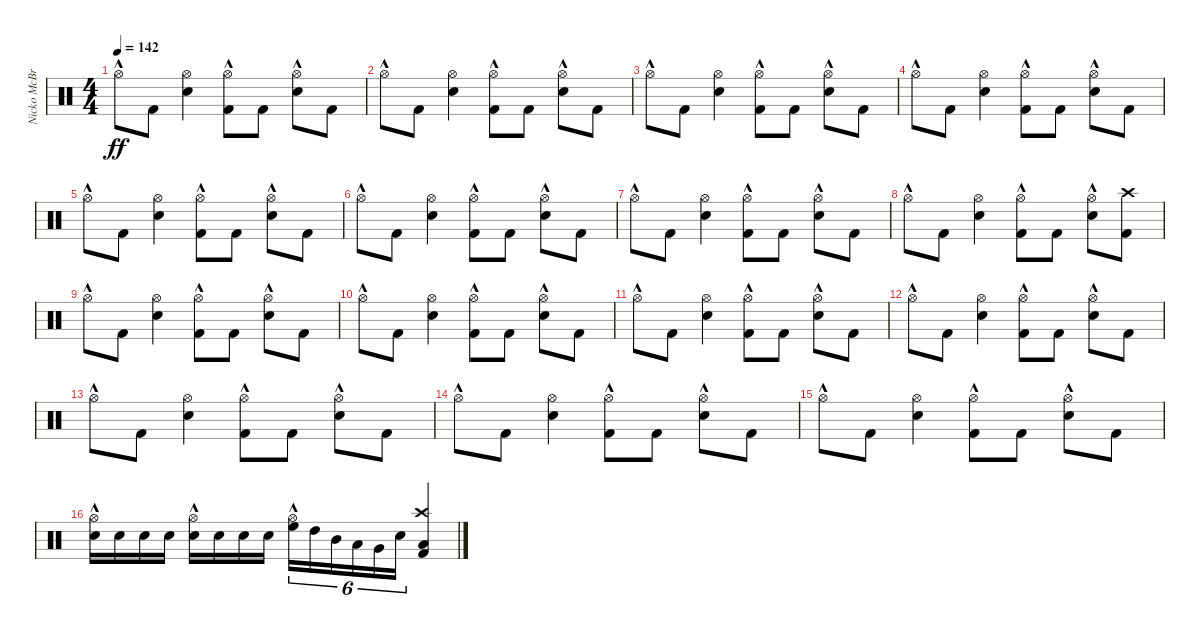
\track ("Nicko McBrain" "Nicko McBr") {instrument percussion}
\staff {score}
\articulation defaults
\ts (4 4)
\tempo 142
\clef neutral
\ks c "Hi-Hat (open)"{hac}.8{dy ff} "Kick (hit) 2".8
("Snare (hit) 2" "Hi-Hat (open)").4 ("Kick (hit) 2" "Hi-Hat (open)"{hac}).8 "Kick (hit) 2".8 ("Snare (hit) 2" "Hi-Hat (open)"{hac}).8 "Kick (hit) 2".8 |
"Hi-Hat (open)"{hac}.8 "Kick (hit) 2".8 ("Snare (hit) 2" "Hi-Hat (open)").4 ("Kick (hit) 2" "Hi-Hat (open)"{hac}).8 "Kick (hit) 2".8 ("Snare (hit) 2" "Hi-Hat (open)"{hac}).8 "Kick (hit) 2".8 |
"Hi-Hat (open)"{hac}.8 "Kick (hit) 2".8 ("Snare (hit) 2" "Hi-Hat (open)").4 ("Kick (hit) 2" "Hi-Hat (open)"{hac}).8 "Kick (hit) 2".8 ("Snare (hit) 2" "Hi-Hat (open)"{hac}).8 "Kick (hit) 2".8 |
"Hi-Hat (open)"{hac}.8 "Kick (hit) 2".8 ("Snare (hit) 2" "Hi-Hat (open)").4 ("Kick (hit) 2" "Hi-Hat (open)"{hac}).8 "Kick (hit) 2".8 ("Snare (hit) 2" "Hi-Hat (open)"{hac}).8 "Kick (hit) 2".8 |
"Hi-Hat (open)"{hac}.8 "Kick (hit) 2".8 ("Snare (hit) 2" "Hi-Hat (open)").4 ("Kick (hit) 2" "Hi-Hat (open)"{hac}).8 "Kick (hit) 2".8 ("Snare (hit) 2" "Hi-Hat (open)"{hac}).8 "Kick (hit) 2".8 |
"Hi-Hat (open)"{hac}.8 "Kick (hit) 2".8 ("Snare (hit) 2" "Hi-Hat (open)").4 ("Kick (hit) 2" "Hi-Hat (open)"{hac}).8 "Kick (hit) 2".8 ("Snare (hit) 2" "Hi-Hat (open)"{hac}).8 "Kick (hit) 2".8 |
"Hi-Hat (open)"{hac}.8 "Kick (hit) 2".8 ("Snare (hit) 2" "Hi-Hat (open)").4 ("Kick (hit) 2" "Hi-Hat (open)"{hac}).8 "Kick (hit) 2".8 ("Snare (hit) 2" "Hi-Hat (open)"{hac}).8 "Kick (hit) 2".8 |
"Hi-Hat (open)"{hac}.8 "Kick (hit) 2".8 ("Snare (hit) 2" "Hi-Hat (open)").4 ("Kick (hit) 2" "Hi-Hat (open)"{hac}).8 "Kick (hit) 2".8 ("Snare (hit) 2" "Hi-Hat (open)"{hac}).8 ("Kick (hit) 2" "Crash high (hit)").8 |
"Hi-Hat (open)"{hac}.8 "Kick (hit) 2".8 ("Snare (hit) 2" "Hi-Hat (open)").4 ("Kick (hit) 2" "Hi-Hat (open)"{hac}).8 "Kick (hit) 2".8 ("Snare (hit) 2" "Hi-Hat (open)"{hac}).8 "Kick (hit) 2".8 |
"Hi-Hat (open)"{hac}.8 "Kick (hit) 2".8 ("Snare (hit) 2" "Hi-Hat (open)").4 ("Kick (hit) 2" "Hi-Hat (open)"{hac}).8 "Kick (hit) 2".8 ("Snare (hit) 2" "Hi-Hat (open)"{hac}).8 "Kick (hit) 2".8 |
"Hi-Hat (open)"{hac}.8 "Kick (hit) 2".8 ("Snare (hit) 2" "Hi-Hat (open)").4 ("Kick (hit) 2" "Hi-Hat (open)"{hac}).8 "Kick (hit) 2".8 ("Snare (hit) 2" "Hi-Hat (open)"{hac}).8 "Kick (hit) 2".8 |
"Hi-Hat (open)"{hac}.8 "Kick (hit) 2".8 ("Snare (hit) 2" "Hi-Hat (open)").4 ("Kick (hit) 2" "Hi-Hat (open)"{hac}).8 "Kick (hit) 2".8 ("Snare (hit) 2" "Hi-Hat (open)"{hac}).8 "Kick (hit) 2".8 |
"Hi-Hat (open)"{hac}.8 "Kick (hit) 2".8 ("Snare (hit) 2" "Hi-Hat (open)").4 ("Kick (hit) 2" "Hi-Hat (open)"{hac}).8 "Kick (hit) 2".8 ("Snare (hit) 2" "Hi-Hat (open)"{hac}).8 "Kick (hit) 2".8 |
"Hi-Hat (open)"{hac}.8 "Kick (hit) 2".8 ("Snare (hit) 2" "Hi-Hat (open)").4 ("Kick (hit) 2" "Hi-Hat (open)"{hac}).8 "Kick (hit) 2".8 ("Snare (hit) 2" "Hi-Hat (open)"{hac}).8 "Kick (hit) 2".8 |
"Hi-Hat (open)"{hac}.8 "Kick (hit) 2".8 ("Snare (hit) 2" "Hi-Hat (open)").4 ("Kick (hit) 2" "Hi-Hat (open)"{hac}).8 "Kick (hit) 2".8 ("Snare (hit) 2" "Hi-Hat (open)"{hac}).8 "Kick (hit) 2".8 |
("Snare (hit) 2" "Hi-Hat (open)"{hac}).16 "Snare (hit) 2".16 "Snare (hit) 2".16 "Snare (hit) 2".16 ("Snare (hit) 2" "Hi-Hat (open)"{hac}).16 "Snare (hit) 2".16 "Snare (hit) 2".16 "Snare (hit) 2".16 ("Hi-Hat (open)"{hac} "High Floor Tom (hit)").16{tu (6 4)} "High Tom (hit)".16{tu (6 4)} "Mid Tom (hit)".16{tu (6 4)} "Low Tom (hit)".16{tu (6 4)} "Very Low Tom (hit)".16{tu (6 4)} "Electric Snare (hit)".16{tu (6 4)} ("Kick (hit) 2" "Low Tom (hit)" "Crash high (hit)").4
